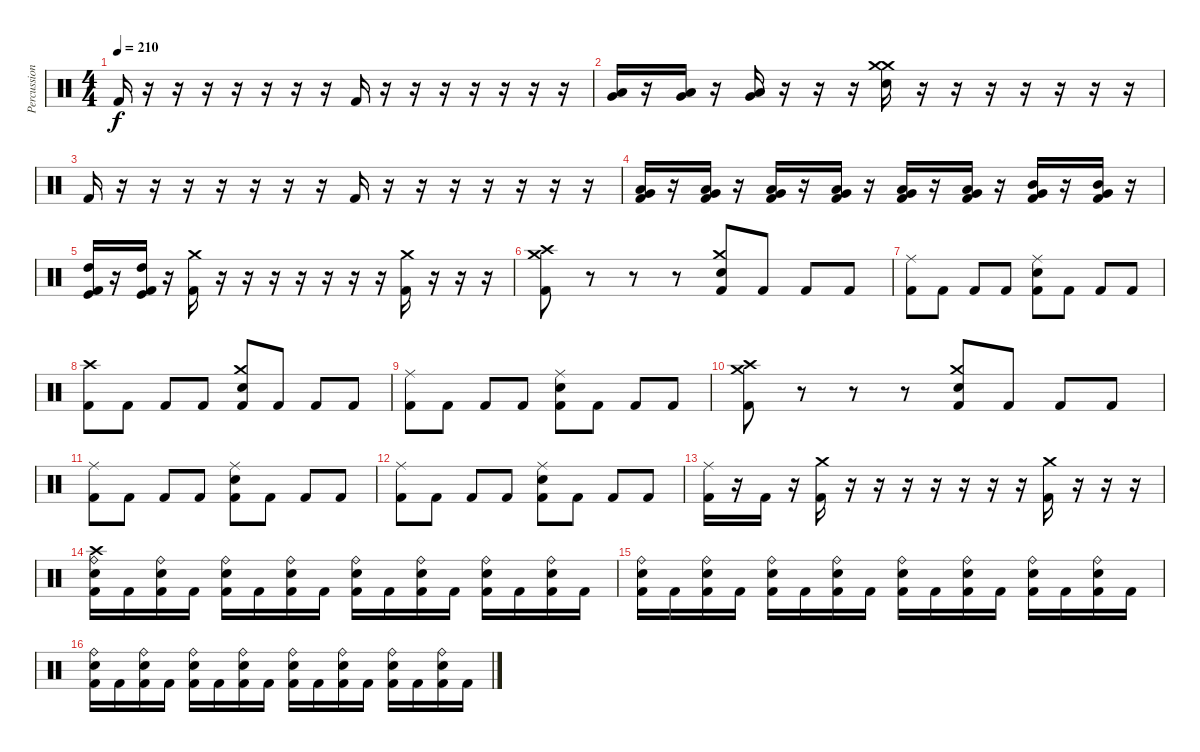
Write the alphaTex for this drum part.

\track ("Percussion" "Percussion") {instrument percussion}
\staff {score}
\articulation defaults
\ts (4 4)
\tempo 210
\clef neutral
\ks c "Kick (hit) 2".16{dy f}
r.16 r.16 r.16 r.16 r.16 r.16 r.16 "Kick (hit) 2".16 r.16 r.16 r.16 r.16 r.16 r.16 r.16 |
("Low Floor Tom (hit)" "Very Low Tom (hit)").16 r.16 ("Low Floor Tom (hit)" "Very Low Tom (hit)").16 r.16 ("Low Floor Tom (hit)" "Very Low Tom (hit)").16 r.16 r.16 r.16 ("Crash medium (hit)" "Crash medium (hit)" "Snare (hit) 2").16 r.16 r.16 r.16 r.16 r.16 r.16 r.16 |
"Kick (hit) 2".16 r.16 r.16 r.16 r.16 r.16 r.16 r.16 "Kick (hit) 2".16 r.16 r.16 r.16 r.16 r.16 r.16 r.16 |
("Kick (hit) 2" "Very Low Tom (hit)" "Low Floor Tom (hit)").16{volume 8} r.16 ("Kick (hit) 2" "Very Low Tom (hit)" "Low Floor Tom (hit)").16 r.16 ("Kick (hit) 2" "Very Low Tom (hit)" "Low Floor Tom (hit)").16{volume 11} r.16 ("Kick (hit) 2" "Very Low Tom (hit)" "Low Floor Tom (hit)").16 r.16 ("Kick (hit) 2" "Low Tom (hit)" "Very Low Tom (hit)").16{volume 12} r.16 ("Kick (hit) 2" "Low Tom (hit)" "Very Low Tom (hit)").16 r.16 ("Kick (hit) 2" "Mid Tom (hit)" "Very Low Tom (hit)").16 r.16 ("Kick (hit) 2" "Mid Tom (hit)" "Very Low Tom (hit)").16 r.16 |
("Kick (hit) 2" "High Tom (hit)" "Kick (hit)").16{volume 16} r.16 ("Kick (hit) 2" "High Tom (hit)" "Kick (hit)").16 r.16 ("Crash medium (hit)" "Kick (hit) 2").16 r.16 r.16 r.16 r.16{volume 16} r.16 r.16 r.16 ("Crash medium (hit)" "Kick (hit) 2").16 r.16 r.16 r.16 |
("Crash high (hit)" "Crash medium (hit)" "Kick (hit) 2").8 r.8 r.8 r.8 ("Crash medium (hit)" "Snare (hit) 2" "Kick (hit) 2").8 "Kick (hit) 2".8 "Kick (hit) 2".8 "Kick (hit) 2".8 |
("Ride (middle)" "Kick (hit) 2").8 "Kick (hit) 2".8 "Kick (hit) 2".8 "Kick (hit) 2".8 ("Ride (middle)" "Snare (hit) 2" "Kick (hit) 2").8 "Kick (hit) 2".8 "Kick (hit) 2".8 "Kick (hit) 2".8 |
("Crash high (hit)" "Kick (hit) 2").8 "Kick (hit) 2".8 "Kick (hit) 2".8 "Kick (hit) 2".8 ("Crash medium (hit)" "Snare (hit) 2" "Kick (hit) 2").8 "Kick (hit) 2".8 "Kick (hit) 2".8 "Kick (hit) 2".8 |
("Ride (middle)" "Kick (hit) 2").8 "Kick (hit) 2".8 "Kick (hit) 2".8 "Kick (hit) 2".8 ("Ride (middle)" "Snare (hit) 2" "Kick (hit) 2").8 "Kick (hit) 2".8 "Kick (hit) 2".8 "Kick (hit) 2".8 |
("Crash high (hit)" "Crash medium (hit)" "Kick (hit) 2").8 r.8 r.8 r.8 ("Crash medium (hit)" "Snare (hit) 2" "Kick (hit) 2").8 "Kick (hit) 2".8 "Kick (hit) 2".8 "Kick (hit) 2".8 |
("Ride (middle)" "Kick (hit) 2").8 "Kick (hit) 2".8 "Kick (hit) 2".8 "Kick (hit) 2".8 ("Ride (middle)" "Snare (hit) 2" "Kick (hit) 2").8 "Kick (hit) 2".8 "Kick (hit) 2".8 "Kick (hit) 2".8 |
("Ride (middle)" "Kick (hit) 2").8 "Kick (hit) 2".8 "Kick (hit) 2".8 "Kick (hit) 2".8 ("Ride (middle)" "Snare (hit) 2" "Kick (hit) 2").8 "Kick (hit) 2".8 "Kick (hit) 2".8 "Kick (hit) 2".8 |
("Ride (middle)" "Kick (hit) 2").16{volume 16} r.16 "Kick (hit) 2".16 r.16 ("Crash medium (hit)" "Kick (hit) 2").16 r.16 r.16 r.16 r.16{volume 16} r.16 r.16 r.16 ("Crash medium (hit)" "Kick (hit) 2").16 r.16 r.16 r.16 |
("Crash high (hit)" "Ride (bell)" "Snare (hit) 2" "Kick (hit) 2").16 "Kick (hit) 2".16 ("Ride (bell)" "Snare (hit) 2" "Kick (hit) 2").16 "Kick (hit) 2".16 ("Ride (bell)" "Snare (hit) 2" "Kick (hit) 2").16 "Kick (hit) 2".16 ("Ride (bell)" "Snare (hit) 2" "Kick (hit) 2").16 "Kick (hit) 2".16 ("Ride (bell)" "Snare (hit) 2" "Kick (hit) 2").16 "Kick (hit) 2".16 ("Ride (bell)" "Snare (hit) 2" "Kick (hit) 2").16 "Kick (hit) 2".16 ("Ride (bell)" "Snare (hit) 2" "Kick (hit) 2").16 "Kick (hit) 2".16 ("Ride (bell)" "Snare (hit) 2" "Kick (hit) 2").16 "Kick (hit) 2".16 |
("Ride (bell)" "Snare (hit) 2" "Kick (hit) 2").16 "Kick (hit) 2".16 ("Ride (bell)" "Snare (hit) 2" "Kick (hit) 2").16 "Kick (hit) 2".16 ("Ride (bell)" "Snare (hit) 2" "Kick (hit) 2").16 "Kick (hit) 2".16 ("Ride (bell)" "Snare (hit) 2" "Kick (hit) 2").16 "Kick (hit) 2".16 ("Ride (bell)" "Snare (hit) 2" "Kick (hit) 2").16 "Kick (hit) 2".16 ("Ride (bell)" "Snare (hit) 2" "Kick (hit) 2").16 "Kick (hit) 2".16 ("Ride (bell)" "Snare (hit) 2" "Kick (hit) 2").16 "Kick (hit) 2".16 ("Ride (bell)" "Snare (hit) 2" "Kick (hit) 2").16 "Kick (hit) 2".16 |
("Ride (bell)" "Snare (hit) 2" "Kick (hit) 2").16 "Kick (hit) 2".16 ("Ride (bell)" "Snare (hit) 2" "Kick (hit) 2").16 "Kick (hit) 2".16 ("Ride (bell)" "Snare (hit) 2" "Kick (hit) 2").16 "Kick (hit) 2".16 ("Ride (bell)" "Snare (hit) 2" "Kick (hit) 2").16 "Kick (hit) 2".16 ("Ride (bell)" "Snare (hit) 2" "Kick (hit) 2").16 "Kick (hit) 2".16 ("Ride (bell)" "Snare (hit) 2" "Kick (hit) 2").16 "Kick (hit) 2".16 ("Ride (bell)" "Snare (hit) 2" "Kick (hit) 2").16 "Kick (hit) 2".16 ("Ride (bell)" "Snare (hit) 2" "Kick (hit) 2").16 "Kick (hit) 2".16
